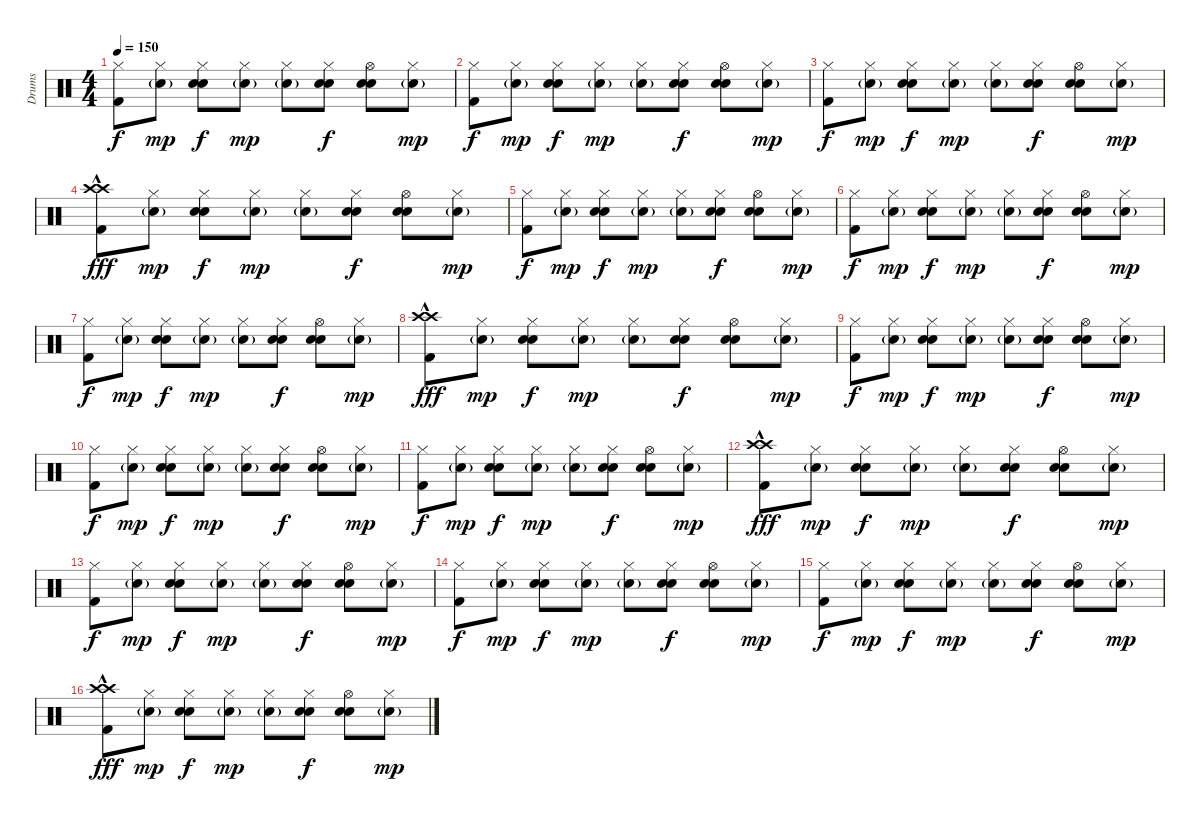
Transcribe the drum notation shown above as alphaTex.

\track ("Drums" "Drums") {instrument percussion}
\staff {score}
\articulation defaults
\ts (4 4)
\tempo 150
\clef neutral
\ks c
("Hi-Hat (closed)" "Kick (hit) 2").8{dy f} ("Hi-Hat (closed)" "Electric Snare (hit)"{g}).8{dy mp} ("Hi-Hat (closed)" "Electric Snare (hit)" "Hand Clap (hit)").8{dy f} ("Hi-Hat (closed)" "Electric Snare (hit)"{g}).8{dy mp} ("Hi-Hat (closed)" "Electric Snare (hit)"{g}).8 ("Hi-Hat (closed)" "Electric Snare (hit)" "Hand Clap (hit)").8{dy f} ("Hi-Hat (open)" "Electric Snare (hit)" "Hand Clap (hit)").8 ("Hi-Hat (closed)" "Electric Snare (hit)"{g}).8{dy mp} |
("Hi-Hat (closed)" "Kick (hit) 2").8{dy f} ("Hi-Hat (closed)" "Electric Snare (hit)"{g}).8{dy mp} ("Hi-Hat (closed)" "Electric Snare (hit)" "Hand Clap (hit)").8{dy f} ("Hi-Hat (closed)" "Electric Snare (hit)"{g}).8{dy mp} ("Hi-Hat (closed)" "Electric Snare (hit)"{g}).8 ("Hi-Hat (closed)" "Electric Snare (hit)" "Hand Clap (hit)").8{dy f} ("Hi-Hat (open)" "Electric Snare (hit)" "Hand Clap (hit)").8 ("Hi-Hat (closed)" "Electric Snare (hit)"{g}).8{dy mp} |
("Hi-Hat (closed)" "Kick (hit) 2").8{dy f} ("Hi-Hat (closed)" "Electric Snare (hit)"{g}).8{dy mp} ("Hi-Hat (closed)" "Electric Snare (hit)" "Hand Clap (hit)").8{dy f} ("Hi-Hat (closed)" "Electric Snare (hit)"{g}).8{dy mp} ("Hi-Hat (closed)" "Electric Snare (hit)"{g}).8 ("Hi-Hat (closed)" "Electric Snare (hit)" "Hand Clap (hit)").8{dy f} ("Hi-Hat (open)" "Electric Snare (hit)" "Hand Clap (hit)").8 ("Hi-Hat (closed)" "Electric Snare (hit)"{g}).8{dy mp} |
("Crash high (hit)"{hac} "Crash high (hit)"{hac} "Kick (hit) 2").8{dy fff} ("Hi-Hat (closed)" "Electric Snare (hit)"{g}).8{dy mp} ("Hi-Hat (closed)" "Electric Snare (hit)" "Hand Clap (hit)").8{dy f} ("Hi-Hat (closed)" "Electric Snare (hit)"{g}).8{dy mp} ("Hi-Hat (closed)" "Electric Snare (hit)"{g}).8 ("Hi-Hat (closed)" "Electric Snare (hit)" "Hand Clap (hit)").8{dy f} ("Hi-Hat (open)" "Electric Snare (hit)" "Hand Clap (hit)").8 ("Hi-Hat (closed)" "Electric Snare (hit)"{g}).8{dy mp} |
("Hi-Hat (closed)" "Kick (hit) 2").8{dy f} ("Hi-Hat (closed)" "Electric Snare (hit)"{g}).8{dy mp} ("Hi-Hat (closed)" "Electric Snare (hit)" "Hand Clap (hit)").8{dy f} ("Hi-Hat (closed)" "Electric Snare (hit)"{g}).8{dy mp} ("Hi-Hat (closed)" "Electric Snare (hit)"{g}).8 ("Hi-Hat (closed)" "Electric Snare (hit)" "Hand Clap (hit)").8{dy f} ("Hi-Hat (open)" "Electric Snare (hit)" "Hand Clap (hit)").8 ("Hi-Hat (closed)" "Electric Snare (hit)"{g}).8{dy mp} |
("Hi-Hat (closed)" "Kick (hit) 2").8{dy f} ("Hi-Hat (closed)" "Electric Snare (hit)"{g}).8{dy mp} ("Hi-Hat (closed)" "Electric Snare (hit)" "Hand Clap (hit)").8{dy f} ("Hi-Hat (closed)" "Electric Snare (hit)"{g}).8{dy mp} ("Hi-Hat (closed)" "Electric Snare (hit)"{g}).8 ("Hi-Hat (closed)" "Electric Snare (hit)" "Hand Clap (hit)").8{dy f} ("Hi-Hat (open)" "Electric Snare (hit)" "Hand Clap (hit)").8 ("Hi-Hat (closed)" "Electric Snare (hit)"{g}).8{dy mp} |
("Hi-Hat (closed)" "Kick (hit) 2").8{dy f} ("Hi-Hat (closed)" "Electric Snare (hit)"{g}).8{dy mp} ("Hi-Hat (closed)" "Electric Snare (hit)" "Hand Clap (hit)").8{dy f} ("Hi-Hat (closed)" "Electric Snare (hit)"{g}).8{dy mp} ("Hi-Hat (closed)" "Electric Snare (hit)"{g}).8 ("Hi-Hat (closed)" "Electric Snare (hit)" "Hand Clap (hit)").8{dy f} ("Hi-Hat (open)" "Electric Snare (hit)" "Hand Clap (hit)").8 ("Hi-Hat (closed)" "Electric Snare (hit)"{g}).8{dy mp} |
("Crash high (hit)"{hac} "Crash high (hit)"{hac} "Kick (hit) 2").8{dy fff} ("Hi-Hat (closed)" "Electric Snare (hit)"{g}).8{dy mp} ("Hi-Hat (closed)" "Electric Snare (hit)" "Hand Clap (hit)").8{dy f} ("Hi-Hat (closed)" "Electric Snare (hit)"{g}).8{dy mp} ("Hi-Hat (closed)" "Electric Snare (hit)"{g}).8 ("Hi-Hat (closed)" "Electric Snare (hit)" "Hand Clap (hit)").8{dy f} ("Hi-Hat (open)" "Electric Snare (hit)" "Hand Clap (hit)").8 ("Hi-Hat (closed)" "Electric Snare (hit)"{g}).8{dy mp} |
("Hi-Hat (closed)" "Kick (hit) 2").8{dy f} ("Hi-Hat (closed)" "Electric Snare (hit)"{g}).8{dy mp} ("Hi-Hat (closed)" "Electric Snare (hit)" "Hand Clap (hit)").8{dy f} ("Hi-Hat (closed)" "Electric Snare (hit)"{g}).8{dy mp} ("Hi-Hat (closed)" "Electric Snare (hit)"{g}).8 ("Hi-Hat (closed)" "Electric Snare (hit)" "Hand Clap (hit)").8{dy f} ("Hi-Hat (open)" "Electric Snare (hit)" "Hand Clap (hit)").8 ("Hi-Hat (closed)" "Electric Snare (hit)"{g}).8{dy mp} |
("Hi-Hat (closed)" "Kick (hit) 2").8{dy f} ("Hi-Hat (closed)" "Electric Snare (hit)"{g}).8{dy mp} ("Hi-Hat (closed)" "Electric Snare (hit)" "Hand Clap (hit)").8{dy f} ("Hi-Hat (closed)" "Electric Snare (hit)"{g}).8{dy mp} ("Hi-Hat (closed)" "Electric Snare (hit)"{g}).8 ("Hi-Hat (closed)" "Electric Snare (hit)" "Hand Clap (hit)").8{dy f} ("Hi-Hat (open)" "Electric Snare (hit)" "Hand Clap (hit)").8 ("Hi-Hat (closed)" "Electric Snare (hit)"{g}).8{dy mp} |
("Hi-Hat (closed)" "Kick (hit) 2").8{dy f} ("Hi-Hat (closed)" "Electric Snare (hit)"{g}).8{dy mp} ("Hi-Hat (closed)" "Electric Snare (hit)" "Hand Clap (hit)").8{dy f} ("Hi-Hat (closed)" "Electric Snare (hit)"{g}).8{dy mp} ("Hi-Hat (closed)" "Electric Snare (hit)"{g}).8 ("Hi-Hat (closed)" "Electric Snare (hit)" "Hand Clap (hit)").8{dy f} ("Hi-Hat (open)" "Electric Snare (hit)" "Hand Clap (hit)").8 ("Hi-Hat (closed)" "Electric Snare (hit)"{g}).8{dy mp} |
("Crash high (hit)"{hac} "Crash high (hit)"{hac} "Kick (hit) 2").8{dy fff} ("Hi-Hat (closed)" "Electric Snare (hit)"{g}).8{dy mp} ("Hi-Hat (closed)" "Electric Snare (hit)" "Hand Clap (hit)").8{dy f} ("Hi-Hat (closed)" "Electric Snare (hit)"{g}).8{dy mp} ("Hi-Hat (closed)" "Electric Snare (hit)"{g}).8 ("Hi-Hat (closed)" "Electric Snare (hit)" "Hand Clap (hit)").8{dy f} ("Hi-Hat (open)" "Electric Snare (hit)" "Hand Clap (hit)").8 ("Hi-Hat (closed)" "Electric Snare (hit)"{g}).8{dy mp} |
("Hi-Hat (closed)" "Kick (hit) 2").8{dy f} ("Hi-Hat (closed)" "Electric Snare (hit)"{g}).8{dy mp} ("Hi-Hat (closed)" "Electric Snare (hit)" "Hand Clap (hit)").8{dy f} ("Hi-Hat (closed)" "Electric Snare (hit)"{g}).8{dy mp} ("Hi-Hat (closed)" "Electric Snare (hit)"{g}).8 ("Hi-Hat (closed)" "Electric Snare (hit)" "Hand Clap (hit)").8{dy f} ("Hi-Hat (open)" "Electric Snare (hit)" "Hand Clap (hit)").8 ("Hi-Hat (closed)" "Electric Snare (hit)"{g}).8{dy mp} |
("Hi-Hat (closed)" "Kick (hit) 2").8{dy f} ("Hi-Hat (closed)" "Electric Snare (hit)"{g}).8{dy mp} ("Hi-Hat (closed)" "Electric Snare (hit)" "Hand Clap (hit)").8{dy f} ("Hi-Hat (closed)" "Electric Snare (hit)"{g}).8{dy mp} ("Hi-Hat (closed)" "Electric Snare (hit)"{g}).8 ("Hi-Hat (closed)" "Electric Snare (hit)" "Hand Clap (hit)").8{dy f} ("Hi-Hat (open)" "Electric Snare (hit)" "Hand Clap (hit)").8 ("Hi-Hat (closed)" "Electric Snare (hit)"{g}).8{dy mp} |
("Hi-Hat (closed)" "Kick (hit) 2").8{dy f} ("Hi-Hat (closed)" "Electric Snare (hit)"{g}).8{dy mp} ("Hi-Hat (closed)" "Electric Snare (hit)" "Hand Clap (hit)").8{dy f} ("Hi-Hat (closed)" "Electric Snare (hit)"{g}).8{dy mp} ("Hi-Hat (closed)" "Electric Snare (hit)"{g}).8 ("Hi-Hat (closed)" "Electric Snare (hit)" "Hand Clap (hit)").8{dy f} ("Hi-Hat (open)" "Electric Snare (hit)" "Hand Clap (hit)").8 ("Hi-Hat (closed)" "Electric Snare (hit)"{g}).8{dy mp} |
("Crash high (hit)"{hac} "Crash high (hit)"{hac} "Kick (hit) 2").8{dy fff} ("Hi-Hat (closed)" "Electric Snare (hit)"{g}).8{dy mp} ("Hi-Hat (closed)" "Electric Snare (hit)" "Hand Clap (hit)").8{dy f} ("Hi-Hat (closed)" "Electric Snare (hit)"{g}).8{dy mp} ("Hi-Hat (closed)" "Electric Snare (hit)"{g}).8 ("Hi-Hat (closed)" "Electric Snare (hit)" "Hand Clap (hit)").8{dy f} ("Hi-Hat (open)" "Electric Snare (hit)" "Hand Clap (hit)").8 ("Hi-Hat (closed)" "Electric Snare (hit)"{g}).8{dy mp}
